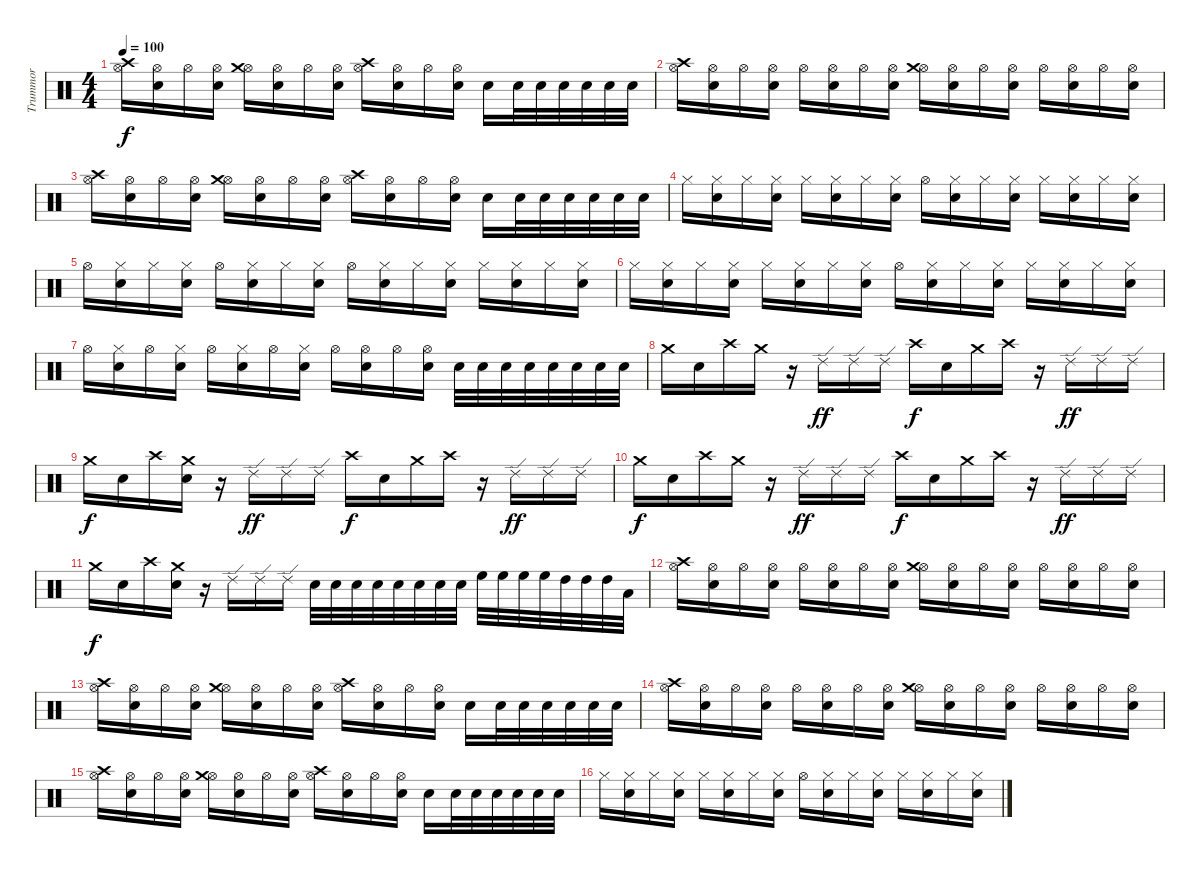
\track ("Trummor" "Trummor") {instrument percussion}
\staff {score}
\articulation defaults
\ts (4 4)
\tempo 100
\clef neutral
\ks c
("Hi-Hat (open)" "Crash high (hit)").16{dy f} ("Hi-Hat (open)" "Electric Snare (hit)").16 "Hi-Hat (open)".16 ("Hi-Hat (open)" "Electric Snare (hit)").16 ("Hi-Hat (open)" "Crash medium (hit)").16 ("Hi-Hat (open)" "Electric Snare (hit)").16 "Hi-Hat (open)".16 ("Hi-Hat (open)" "Electric Snare (hit)").16 ("Hi-Hat (open)" "Crash high (hit)").16 ("Hi-Hat (open)" "Electric Snare (hit)").16 "Hi-Hat (open)".16 ("Hi-Hat (open)" "Electric Snare (hit)").16 "Electric Snare (hit)".16 "Electric Snare (hit)".32 "Electric Snare (hit)".32 "Electric Snare (hit)".32 "Electric Snare (hit)".32 "Electric Snare (hit)".32 "Electric Snare (hit)".32 |
("Hi-Hat (open)" "Crash high (hit)").16 ("Hi-Hat (open)" "Electric Snare (hit)").16 "Hi-Hat (open)".16 ("Hi-Hat (open)" "Electric Snare (hit)").16 "Hi-Hat (open)".16 ("Hi-Hat (open)" "Electric Snare (hit)").16 "Hi-Hat (open)".16 ("Hi-Hat (open)" "Electric Snare (hit)").16 ("Hi-Hat (open)" "Crash medium (hit)").16 ("Hi-Hat (open)" "Electric Snare (hit)").16 "Hi-Hat (open)".16 ("Hi-Hat (open)" "Electric Snare (hit)").16 "Hi-Hat (open)".16 ("Hi-Hat (open)" "Electric Snare (hit)").16 "Hi-Hat (open)".16 ("Hi-Hat (open)" "Electric Snare (hit)").16 |
("Hi-Hat (open)" "Crash high (hit)").16 ("Hi-Hat (open)" "Electric Snare (hit)").16 "Hi-Hat (open)".16 ("Hi-Hat (open)" "Electric Snare (hit)").16 ("Hi-Hat (open)" "Crash medium (hit)").16 ("Hi-Hat (open)" "Electric Snare (hit)").16 "Hi-Hat (open)".16 ("Hi-Hat (open)" "Electric Snare (hit)").16 ("Hi-Hat (open)" "Crash high (hit)").16 ("Hi-Hat (open)" "Electric Snare (hit)").16 "Hi-Hat (open)".16 ("Hi-Hat (open)" "Electric Snare (hit)").16 "Electric Snare (hit)".16 "Electric Snare (hit)".32 "Electric Snare (hit)".32 "Electric Snare (hit)".32 "Electric Snare (hit)".32 "Electric Snare (hit)".32 "Electric Snare (hit)".32 |
"Hi-Hat (closed)".16 ("Hi-Hat (closed)" "Electric Snare (hit)").16 "Hi-Hat (closed)".16 ("Hi-Hat (closed)" "Electric Snare (hit)").16 "Hi-Hat (closed)".16 ("Hi-Hat (closed)" "Electric Snare (hit)").16 "Hi-Hat (closed)".16 ("Hi-Hat (closed)" "Electric Snare (hit)").16 "Hi-Hat (open)".16 ("Hi-Hat (closed)" "Electric Snare (hit)").16 "Hi-Hat (closed)".16 ("Hi-Hat (closed)" "Electric Snare (hit)").16 "Hi-Hat (closed)".16 ("Hi-Hat (closed)" "Electric Snare (hit)").16 "Hi-Hat (closed)".16 ("Hi-Hat (closed)" "Electric Snare (hit)").16 |
"Hi-Hat (open)".16 ("Hi-Hat (closed)" "Electric Snare (hit)").16 "Hi-Hat (closed)".16 ("Hi-Hat (closed)" "Electric Snare (hit)").16 "Hi-Hat (open)".16 ("Hi-Hat (closed)" "Electric Snare (hit)").16 "Hi-Hat (closed)".16 ("Hi-Hat (closed)" "Electric Snare (hit)").16 "Hi-Hat (open)".16 ("Hi-Hat (closed)" "Electric Snare (hit)").16 "Hi-Hat (closed)".16 ("Hi-Hat (closed)" "Electric Snare (hit)").16 "Hi-Hat (closed)".16 ("Hi-Hat (closed)" "Electric Snare (hit)").16 "Hi-Hat (closed)".16 ("Hi-Hat (closed)" "Electric Snare (hit)").16 |
"Hi-Hat (closed)".16 ("Hi-Hat (closed)" "Electric Snare (hit)").16 "Hi-Hat (closed)".16 ("Hi-Hat (closed)" "Electric Snare (hit)").16 "Hi-Hat (closed)".16 ("Hi-Hat (closed)" "Electric Snare (hit)").16 "Hi-Hat (closed)".16 ("Hi-Hat (closed)" "Electric Snare (hit)").16 "Hi-Hat (open)".16 ("Hi-Hat (closed)" "Electric Snare (hit)").16 "Hi-Hat (closed)".16 ("Hi-Hat (closed)" "Electric Snare (hit)").16 "Hi-Hat (closed)".16 ("Hi-Hat (closed)" "Electric Snare (hit)").16 "Hi-Hat (closed)".16 ("Hi-Hat (closed)" "Electric Snare (hit)").16 |
"Hi-Hat (open)".16 ("Hi-Hat (closed)" "Electric Snare (hit)").16 "Hi-Hat (open)".16 ("Hi-Hat (closed)" "Electric Snare (hit)").16 "Hi-Hat (open)".16 ("Hi-Hat (closed)" "Electric Snare (hit)").16 "Hi-Hat (open)".16 ("Hi-Hat (closed)" "Electric Snare (hit)").16 "Hi-Hat (open)".16 ("Hi-Hat (open)" "Electric Snare (hit)").16 "Hi-Hat (open)".16 ("Hi-Hat (open)" "Electric Snare (hit)").16 "Electric Snare (hit)".32 "Electric Snare (hit)".32 "Electric Snare (hit)".32 "Electric Snare (hit)".32 "Electric Snare (hit)".32 "Electric Snare (hit)".32 "Electric Snare (hit)".32 "Electric Snare (hit)".32 |
"Crash medium (hit)".16 "Electric Snare (hit)".16 "Crash high (hit)".16 "Crash medium (hit)".16 r.16 "Ride (edge) 2".16{dy ff} "Ride (edge) 2".16 "Ride (edge) 2".16 "Crash high (hit)".16{dy f} "Electric Snare (hit)".16 "Crash medium (hit)".16 "Crash high (hit)".16 r.16 "Ride (edge) 2".16{dy ff} "Ride (edge) 2".16 "Ride (edge) 2".16 |
"Crash medium (hit)".16{dy f} "Electric Snare (hit)".16 "Crash high (hit)".16 ("Electric Snare (hit)" "Crash medium (hit)").16 r.16 "Ride (edge) 2".16{dy ff} "Ride (edge) 2".16 "Ride (edge) 2".16 "Crash high (hit)".16{dy f} "Electric Snare (hit)".16 "Crash medium (hit)".16 "Crash high (hit)".16 r.16 "Ride (edge) 2".16{dy ff} "Ride (edge) 2".16 "Ride (edge) 2".16 |
"Crash medium (hit)".16{dy f} "Electric Snare (hit)".16 "Crash high (hit)".16 "Crash medium (hit)".16 r.16 "Ride (edge) 2".16{dy ff} "Ride (edge) 2".16 "Ride (edge) 2".16 "Crash high (hit)".16{dy f} "Electric Snare (hit)".16 "Crash medium (hit)".16 "Crash high (hit)".16 r.16 "Ride (edge) 2".16{dy ff} "Ride (edge) 2".16 "Ride (edge) 2".16 |
"Crash medium (hit)".16{dy f} "Electric Snare (hit)".16 "Crash high (hit)".16 ("Electric Snare (hit)" "Crash medium (hit)").16 r.16 "Ride (edge) 2".16 "Ride (edge) 2".16 "Ride (edge) 2".16 "Electric Snare (hit)".32 "Electric Snare (hit)".32 "Electric Snare (hit)".32 "Electric Snare (hit)".32 "Electric Snare (hit)".32 "Electric Snare (hit)".32 "Electric Snare (hit)".32 "Electric Snare (hit)".32 "High Floor Tom (hit)".32 "High Floor Tom (hit)".32 "High Floor Tom (hit)".32 "High Floor Tom (hit)".32 "High Tom (hit)".32 "High Tom (hit)".32 "High Tom (hit)".32 "Low Tom (hit)".32 |
("Hi-Hat (open)" "Crash high (hit)").16 ("Hi-Hat (open)" "Electric Snare (hit)").16 "Hi-Hat (open)".16 ("Hi-Hat (open)" "Electric Snare (hit)").16 "Hi-Hat (open)".16 ("Hi-Hat (open)" "Electric Snare (hit)").16 "Hi-Hat (open)".16 ("Hi-Hat (open)" "Electric Snare (hit)").16 ("Hi-Hat (open)" "Crash medium (hit)").16 ("Hi-Hat (open)" "Electric Snare (hit)").16 "Hi-Hat (open)".16 ("Hi-Hat (open)" "Electric Snare (hit)").16 "Hi-Hat (open)".16 ("Hi-Hat (open)" "Electric Snare (hit)").16 "Hi-Hat (open)".16 ("Hi-Hat (open)" "Electric Snare (hit)").16 |
("Hi-Hat (open)" "Crash high (hit)").16 ("Hi-Hat (open)" "Electric Snare (hit)").16 "Hi-Hat (open)".16 ("Hi-Hat (open)" "Electric Snare (hit)").16 ("Hi-Hat (open)" "Crash medium (hit)").16 ("Hi-Hat (open)" "Electric Snare (hit)").16 "Hi-Hat (open)".16 ("Hi-Hat (open)" "Electric Snare (hit)").16 ("Hi-Hat (open)" "Crash high (hit)").16 ("Hi-Hat (open)" "Electric Snare (hit)").16 "Hi-Hat (open)".16 ("Hi-Hat (open)" "Electric Snare (hit)").16 "Electric Snare (hit)".16 "Electric Snare (hit)".32 "Electric Snare (hit)".32 "Electric Snare (hit)".32 "Electric Snare (hit)".32 "Electric Snare (hit)".32 "Electric Snare (hit)".32 |
("Hi-Hat (open)" "Crash high (hit)").16 ("Hi-Hat (open)" "Electric Snare (hit)").16 "Hi-Hat (open)".16 ("Hi-Hat (open)" "Electric Snare (hit)").16 "Hi-Hat (open)".16 ("Hi-Hat (open)" "Electric Snare (hit)").16 "Hi-Hat (open)".16 ("Hi-Hat (open)" "Electric Snare (hit)").16 ("Hi-Hat (open)" "Crash medium (hit)").16 ("Hi-Hat (open)" "Electric Snare (hit)").16 "Hi-Hat (open)".16 ("Hi-Hat (open)" "Electric Snare (hit)").16 "Hi-Hat (open)".16 ("Hi-Hat (open)" "Electric Snare (hit)").16 "Hi-Hat (open)".16 ("Hi-Hat (open)" "Electric Snare (hit)").16 |
("Hi-Hat (open)" "Crash high (hit)").16 ("Hi-Hat (open)" "Electric Snare (hit)").16 "Hi-Hat (open)".16 ("Hi-Hat (open)" "Electric Snare (hit)").16 ("Hi-Hat (open)" "Crash medium (hit)").16 ("Hi-Hat (open)" "Electric Snare (hit)").16 "Hi-Hat (open)".16 ("Hi-Hat (open)" "Electric Snare (hit)").16 ("Hi-Hat (open)" "Crash high (hit)").16 ("Hi-Hat (open)" "Electric Snare (hit)").16 "Hi-Hat (open)".16 ("Hi-Hat (open)" "Electric Snare (hit)").16 "Electric Snare (hit)".16 "Electric Snare (hit)".32 "Electric Snare (hit)".32 "Electric Snare (hit)".32 "Electric Snare (hit)".32 "Electric Snare (hit)".32 "Electric Snare (hit)".32 |
"Hi-Hat (closed)".16 ("Hi-Hat (closed)" "Electric Snare (hit)").16 "Hi-Hat (closed)".16 ("Hi-Hat (closed)" "Electric Snare (hit)").16 "Hi-Hat (closed)".16 ("Hi-Hat (closed)" "Electric Snare (hit)").16 "Hi-Hat (closed)".16 ("Hi-Hat (closed)" "Electric Snare (hit)").16 "Hi-Hat (open)".16 ("Hi-Hat (closed)" "Electric Snare (hit)").16 "Hi-Hat (closed)".16 ("Hi-Hat (closed)" "Electric Snare (hit)").16 "Hi-Hat (closed)".16 ("Hi-Hat (closed)" "Electric Snare (hit)").16 "Hi-Hat (closed)".16 ("Hi-Hat (closed)" "Electric Snare (hit)").16
